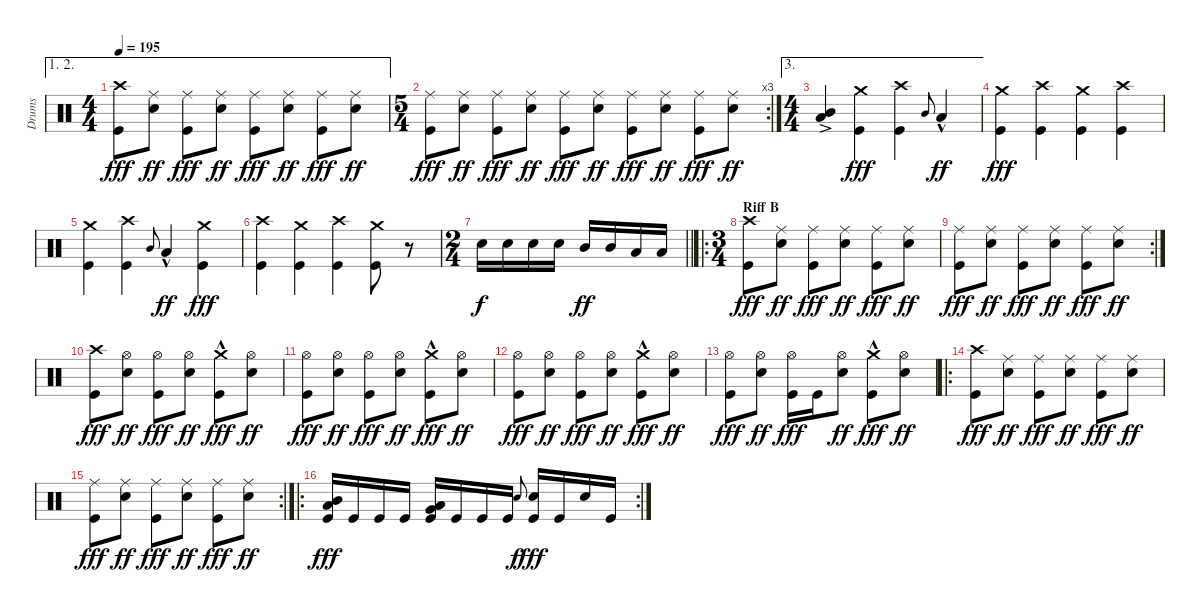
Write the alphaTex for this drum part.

\track ("Drums" "Drums") {instrument percussion}
\staff {score}
\articulation defaults
\ae (1 2)
\ts (4 4)
\tempo 195
\clef neutral
\ks c
("Crash high (hit)" "Kick (hit)").8{dy fff} ("Ride (middle)" "Electric Snare (hit)").8{dy ff} ("Ride (middle)" "Kick (hit)").8{dy fff} ("Ride (middle)" "Electric Snare (hit)").8{dy ff} ("Ride (middle)" "Kick (hit)").8{dy fff} ("Ride (middle)" "Electric Snare (hit)").8{dy ff} ("Ride (middle)" "Kick (hit)").8{dy fff} ("Ride (middle)" "Electric Snare (hit)").8{dy ff} |
\rc 3
\ts (5 4)
("Ride (middle)" "Kick (hit)").8{dy fff} ("Ride (middle)" "Electric Snare (hit)").8{dy ff} ("Ride (middle)" "Kick (hit)").8{dy fff} ("Ride (middle)" "Electric Snare (hit)").8{dy ff} ("Ride (middle)" "Kick (hit)").8{dy fff} ("Ride (middle)" "Electric Snare (hit)").8{dy ff} ("Ride (middle)" "Kick (hit)").8{dy fff} ("Ride (middle)" "Electric Snare (hit)").8{dy ff} ("Ride (middle)" "Kick (hit)").8{dy fff} ("Ride (middle)" "Electric Snare (hit)").8{dy ff} |
\ae 3
\ts (4 4)
("Mid Tom (hit)"{ac} "Low Tom (hit)"{ac}).4 ("Crash medium (hit)" "Kick (hit)").4{dy fff} ("Crash high (hit)" "Kick (hit)").4 "Mid Tom (hit)".8{gr onbeat} "Low Tom (hit)"{hac}.4{dy ff} |
("Crash medium (hit)" "Kick (hit)").4{dy fff} ("Crash high (hit)" "Kick (hit)").4 ("Crash medium (hit)" "Kick (hit)").4 ("Crash high (hit)" "Kick (hit)").4 |
("Crash medium (hit)" "Kick (hit)").4 ("Crash high (hit)" "Kick (hit)").4 "Mid Tom (hit)".8{gr onbeat} "Low Tom (hit)"{hac}.4{dy ff} ("Crash medium (hit)" "Kick (hit)").4{dy fff} |
("Crash high (hit)" "Kick (hit)").4 ("Crash medium (hit)" "Kick (hit)").4 ("Crash high (hit)" "Kick (hit)").4 ("Crash medium (hit)" "Kick (hit)").8 r.8{volume 0} |
\ts (2 4)
\barLineRight lightlight "Electric Snare (hit)".16{dy f volume 13} "Electric Snare (hit)".16 "Electric Snare (hit)".16 "Electric Snare (hit)".16 "Mid Tom (hit)".16{dy ff} "Mid Tom (hit)".16 "Low Tom (hit)".16 "Low Tom (hit)".16
|
\ro
\ts (3 4)
\section ("" "Riff B")
("Crash high (hit)" "Kick (hit)").8{dy fff} ("Ride (middle)" "Electric Snare (hit)").8{dy ff} ("Ride (middle)" "Kick (hit)").8{dy fff} ("Ride (middle)" "Electric Snare (hit)").8{dy ff} ("Ride (middle)" "Kick (hit)").8{dy fff} ("Ride (middle)" "Electric Snare (hit)").8{dy ff} |
\rc 2
("Ride (middle)" "Kick (hit)").8{dy fff} ("Ride (middle)" "Electric Snare (hit)").8{dy ff} ("Ride (middle)" "Kick (hit)").8{dy fff} ("Ride (middle)" "Electric Snare (hit)").8{dy ff} ("Ride (middle)" "Kick (hit)").8{dy fff} ("Ride (middle)" "Electric Snare (hit)").8{dy ff} |
("Crash high (hit)" "Kick (hit)").8{dy fff} ("Hi-Hat (open)" "Electric Snare (hit)").8{dy ff} ("Hi-Hat (open)" "Kick (hit)").8{dy fff} ("Hi-Hat (open)" "Electric Snare (hit)").8{dy ff} ("Crash medium (hit)"{hac} "Kick (hit)").8{dy fff} ("Hi-Hat (open)" "Electric Snare (hit)").8{dy ff} |
("Hi-Hat (open)" "Kick (hit)").8{dy fff} ("Hi-Hat (open)" "Electric Snare (hit)").8{dy ff} ("Hi-Hat (open)" "Kick (hit)").8{dy fff} ("Hi-Hat (open)" "Electric Snare (hit)").8{dy ff} ("Crash medium (hit)"{hac} "Kick (hit)").8{dy fff} ("Hi-Hat (open)" "Electric Snare (hit)").8{dy ff} |
("Hi-Hat (open)" "Kick (hit)").8{dy fff} ("Hi-Hat (open)" "Electric Snare (hit)").8{dy ff} ("Hi-Hat (open)" "Kick (hit)").8{dy fff} ("Hi-Hat (open)" "Electric Snare (hit)").8{dy ff} ("Crash medium (hit)"{hac} "Kick (hit)").8{dy fff} ("Hi-Hat (open)" "Electric Snare (hit)").8{dy ff} |
("Hi-Hat (open)" "Kick (hit)").8{dy fff} ("Hi-Hat (open)" "Electric Snare (hit)").8{dy ff} ("Hi-Hat (open)" "Kick (hit)").16{dy fff} "Kick (hit)".16 ("Hi-Hat (open)" "Electric Snare (hit)").8{dy ff} ("Crash medium (hit)"{hac} "Kick (hit)").8{dy fff} ("Hi-Hat (open)" "Electric Snare (hit)").8{dy ff} |
\ro
("Crash high (hit)" "Kick (hit)").8{dy fff} ("Ride (middle)" "Electric Snare (hit)").8{dy ff} ("Ride (middle)" "Kick (hit)").8{dy fff} ("Ride (middle)" "Electric Snare (hit)").8{dy ff} ("Ride (middle)" "Kick (hit)").8{dy fff} ("Ride (middle)" "Electric Snare (hit)").8{dy ff} |
\rc 2
("Ride (middle)" "Kick (hit)").8{dy fff} ("Ride (middle)" "Electric Snare (hit)").8{dy ff} ("Ride (middle)" "Kick (hit)").8{dy fff} ("Ride (middle)" "Electric Snare (hit)").8{dy ff} ("Ride (middle)" "Kick (hit)").8{dy fff} ("Ride (middle)" "Electric Snare (hit)").8{dy ff} |
\ro
\rc 2
("Mid Tom (hit)" "Low Tom (hit)" "Kick (hit)").16{dy fff} "Kick (hit)".16 "Kick (hit)".16 "Kick (hit)".16 ("Low Tom (hit)" "Very Low Tom (hit)" "Kick (hit)").16 "Kick (hit)".16 "Kick (hit)".16 "Kick (hit)".16 "Electric Snare (hit)".8{gr onbeat dy f} ("Electric Snare (hit)" "Kick (hit)").16{dy fff} "Kick (hit)".16 "Snare (hit)".16 "Kick (hit)".16
